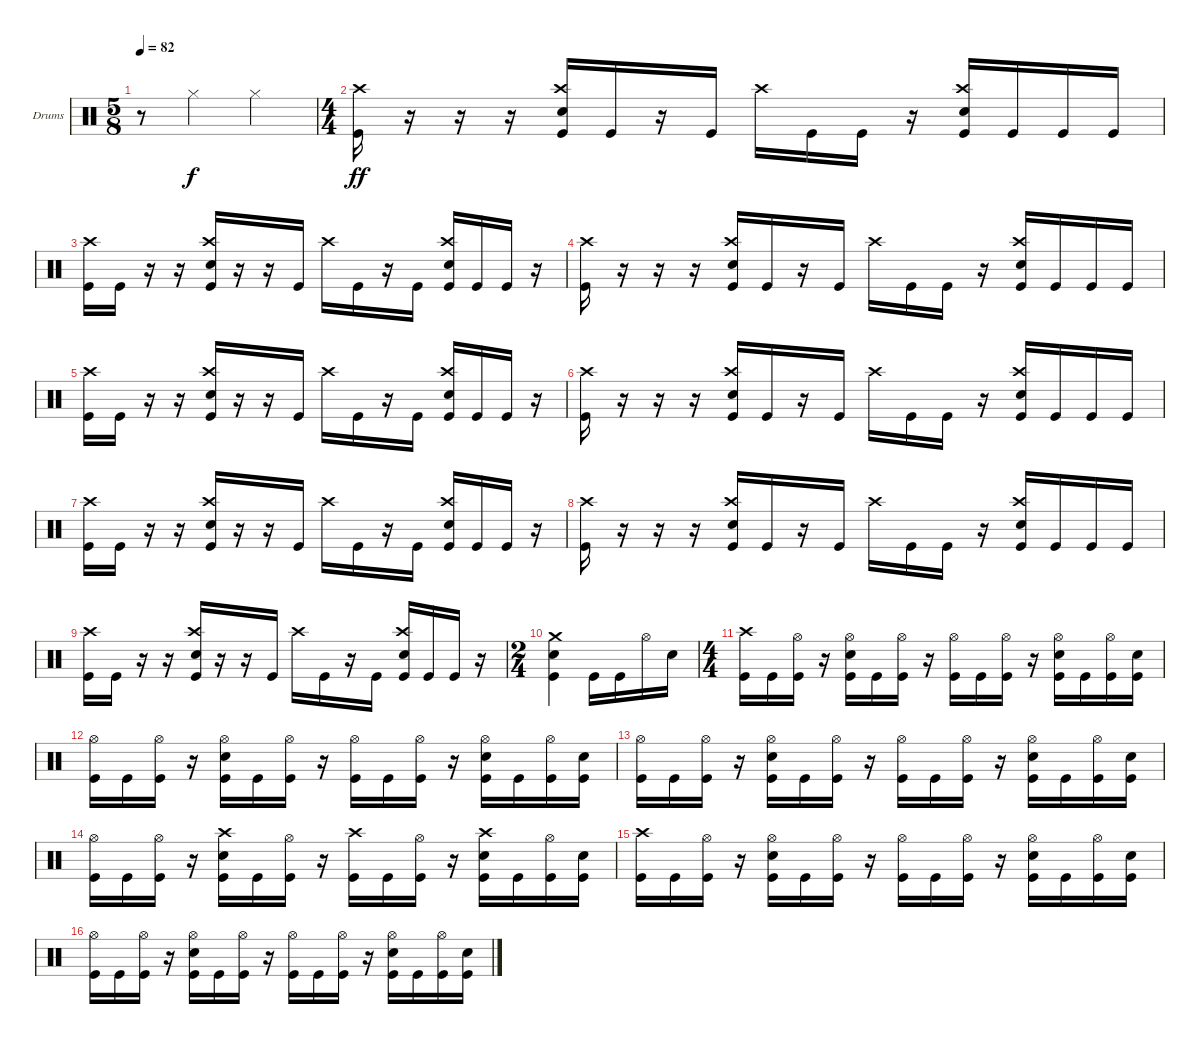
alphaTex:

\bracketExtendMode groupsimilarinstruments
\firstSystemTrackNameOrientation horizontal
\otherSystemsTrackNameOrientation horizontal
\track ("Drumkit" "Drums") {instrument percussion}
\staff {score}
\articulation defaults
\ts (5 8)
\tempo 82
\clef neutral
\ks c
r.8{dy f} "Hi-Hat (closed)".4 "Hi-Hat (closed)".4 |
\ts (4 4)
("Kick (hit)" "Crash high (hit)").16{dy ff} r.16 r.16 r.16 ("Kick (hit)" "Snare (hit) 2" "Crash high (hit)").16 "Kick (hit)".16 r.16 "Kick (hit)".16 "Crash high (hit)".16 "Kick (hit)".16 "Kick (hit)".16 r.16 ("Kick (hit)" "Snare (hit) 2" "Crash high (hit)").16 "Kick (hit)".16 "Kick (hit)".16 "Kick (hit)".16 |
("Kick (hit)" "Crash high (hit)").16 "Kick (hit)".16 r.16 r.16 ("Kick (hit)" "Crash high (hit)" "Snare (hit) 2").16 r.16 r.16 "Kick (hit)".16 "Crash high (hit)".16 "Kick (hit)".16 r.16 "Kick (hit)".16 ("Kick (hit)" "Crash high (hit)" "Snare (hit) 2").16 "Kick (hit)".16 "Kick (hit)".16 r.16 |
("Kick (hit)" "Crash high (hit)").16 r.16 r.16 r.16 ("Kick (hit)" "Snare (hit) 2" "Crash high (hit)").16 "Kick (hit)".16 r.16 "Kick (hit)".16 "Crash high (hit)".16 "Kick (hit)".16 "Kick (hit)".16 r.16 ("Kick (hit)" "Snare (hit) 2" "Crash high (hit)").16 "Kick (hit)".16 "Kick (hit)".16 "Kick (hit)".16 |
("Kick (hit)" "Crash high (hit)").16 "Kick (hit)".16 r.16 r.16 ("Kick (hit)" "Crash high (hit)" "Snare (hit) 2").16 r.16 r.16 "Kick (hit)".16 "Crash high (hit)".16 "Kick (hit)".16 r.16 "Kick (hit)".16 ("Kick (hit)" "Crash high (hit)" "Snare (hit) 2").16 "Kick (hit)".16 "Kick (hit)".16 r.16 |
("Kick (hit)" "Crash high (hit)").16 r.16 r.16 r.16 ("Kick (hit)" "Snare (hit) 2" "Crash high (hit)").16 "Kick (hit)".16 r.16 "Kick (hit)".16 "Crash high (hit)".16 "Kick (hit)".16 "Kick (hit)".16 r.16 ("Kick (hit)" "Snare (hit) 2" "Crash high (hit)").16 "Kick (hit)".16 "Kick (hit)".16 "Kick (hit)".16 |
("Kick (hit)" "Crash high (hit)").16 "Kick (hit)".16 r.16 r.16 ("Kick (hit)" "Crash high (hit)" "Snare (hit) 2").16 r.16 r.16 "Kick (hit)".16 "Crash high (hit)".16 "Kick (hit)".16 r.16 "Kick (hit)".16 ("Kick (hit)" "Crash high (hit)" "Snare (hit) 2").16 "Kick (hit)".16 "Kick (hit)".16 r.16 |
("Kick (hit)" "Crash high (hit)").16 r.16 r.16 r.16 ("Kick (hit)" "Snare (hit) 2" "Crash high (hit)").16 "Kick (hit)".16 r.16 "Kick (hit)".16 "Crash high (hit)".16 "Kick (hit)".16 "Kick (hit)".16 r.16 ("Kick (hit)" "Snare (hit) 2" "Crash high (hit)").16 "Kick (hit)".16 "Kick (hit)".16 "Kick (hit)".16 |
("Kick (hit)" "Crash high (hit)").16 "Kick (hit)".16 r.16 r.16 ("Kick (hit)" "Crash high (hit)" "Snare (hit) 2").16 r.16 r.16 "Kick (hit)".16 "Crash high (hit)".16 "Kick (hit)".16 r.16 "Kick (hit)".16 ("Kick (hit)" "Crash high (hit)" "Snare (hit) 2").16 "Kick (hit)".16 "Kick (hit)".16 r.16 |
\ts (2 4)
("Kick (hit)" "Snare (hit) 2" "Crash medium (hit)").4 "Kick (hit)".16 "Kick (hit)".16 "Hi-Hat (open)".16 "Snare (hit) 2".16 |
\ts (4 4)
("Kick (hit)" "Crash high (hit)").16 "Kick (hit)".16 ("Kick (hit)" "Hi-Hat (open)").16 r.16 ("Kick (hit)" "Snare (hit) 2" "Hi-Hat (open)").16 "Kick (hit)".16 ("Kick (hit)" "Hi-Hat (open)").16 r.16 ("Kick (hit)" "Hi-Hat (open)").16 "Kick (hit)".16 ("Kick (hit)" "Hi-Hat (open)").16 r.16 ("Kick (hit)" "Snare (hit) 2" "Hi-Hat (open)").16 "Kick (hit)".16 ("Kick (hit)" "Hi-Hat (open)").16 ("Kick (hit)" "Snare (hit) 2").16 |
("Kick (hit)" "Hi-Hat (open)").16 "Kick (hit)".16 ("Kick (hit)" "Hi-Hat (open)").16 r.16 ("Kick (hit)" "Snare (hit) 2" "Hi-Hat (open)").16 "Kick (hit)".16 ("Kick (hit)" "Hi-Hat (open)").16 r.16 ("Kick (hit)" "Hi-Hat (open)").16 "Kick (hit)".16 ("Kick (hit)" "Hi-Hat (open)").16 r.16 ("Kick (hit)" "Snare (hit) 2" "Hi-Hat (open)").16 "Kick (hit)".16 ("Kick (hit)" "Hi-Hat (open)").16 ("Kick (hit)" "Snare (hit) 2").16 |
("Kick (hit)" "Hi-Hat (open)").16 "Kick (hit)".16 ("Kick (hit)" "Hi-Hat (open)").16 r.16 ("Kick (hit)" "Snare (hit) 2" "Hi-Hat (open)").16 "Kick (hit)".16 ("Kick (hit)" "Hi-Hat (open)").16 r.16 ("Kick (hit)" "Hi-Hat (open)").16 "Kick (hit)".16 ("Kick (hit)" "Hi-Hat (open)").16 r.16 ("Kick (hit)" "Snare (hit) 2" "Hi-Hat (open)").16 "Kick (hit)".16 ("Kick (hit)" "Hi-Hat (open)").16 ("Kick (hit)" "Snare (hit) 2").16 |
("Kick (hit)" "Hi-Hat (open)").16 "Kick (hit)".16 ("Kick (hit)" "Hi-Hat (open)").16 r.16 ("Kick (hit)" "Snare (hit) 2" "Crash high (hit)").16 "Kick (hit)".16 ("Kick (hit)" "Hi-Hat (open)").16 r.16 ("Kick (hit)" "Crash high (hit)").16 "Kick (hit)".16 ("Kick (hit)" "Hi-Hat (open)").16 r.16 ("Kick (hit)" "Snare (hit) 2" "Crash high (hit)").16 "Kick (hit)".16 ("Kick (hit)" "Hi-Hat (open)").16 ("Kick (hit)" "Snare (hit) 2").16 |
("Kick (hit)" "Crash high (hit)").16 "Kick (hit)".16 ("Kick (hit)" "Hi-Hat (open)").16 r.16 ("Kick (hit)" "Snare (hit) 2" "Hi-Hat (open)").16 "Kick (hit)".16 ("Kick (hit)" "Hi-Hat (open)").16 r.16 ("Kick (hit)" "Hi-Hat (open)").16 "Kick (hit)".16 ("Kick (hit)" "Hi-Hat (open)").16 r.16 ("Kick (hit)" "Snare (hit) 2" "Hi-Hat (open)").16 "Kick (hit)".16 ("Kick (hit)" "Hi-Hat (open)").16 ("Kick (hit)" "Snare (hit) 2").16 |
("Kick (hit)" "Hi-Hat (open)").16 "Kick (hit)".16 ("Kick (hit)" "Hi-Hat (open)").16 r.16 ("Kick (hit)" "Snare (hit) 2" "Hi-Hat (open)").16 "Kick (hit)".16 ("Kick (hit)" "Hi-Hat (open)").16 r.16 ("Kick (hit)" "Hi-Hat (open)").16 "Kick (hit)".16 ("Kick (hit)" "Hi-Hat (open)").16 r.16 ("Kick (hit)" "Snare (hit) 2" "Hi-Hat (open)").16 "Kick (hit)".16 ("Kick (hit)" "Hi-Hat (open)").16 ("Kick (hit)" "Snare (hit) 2").16
